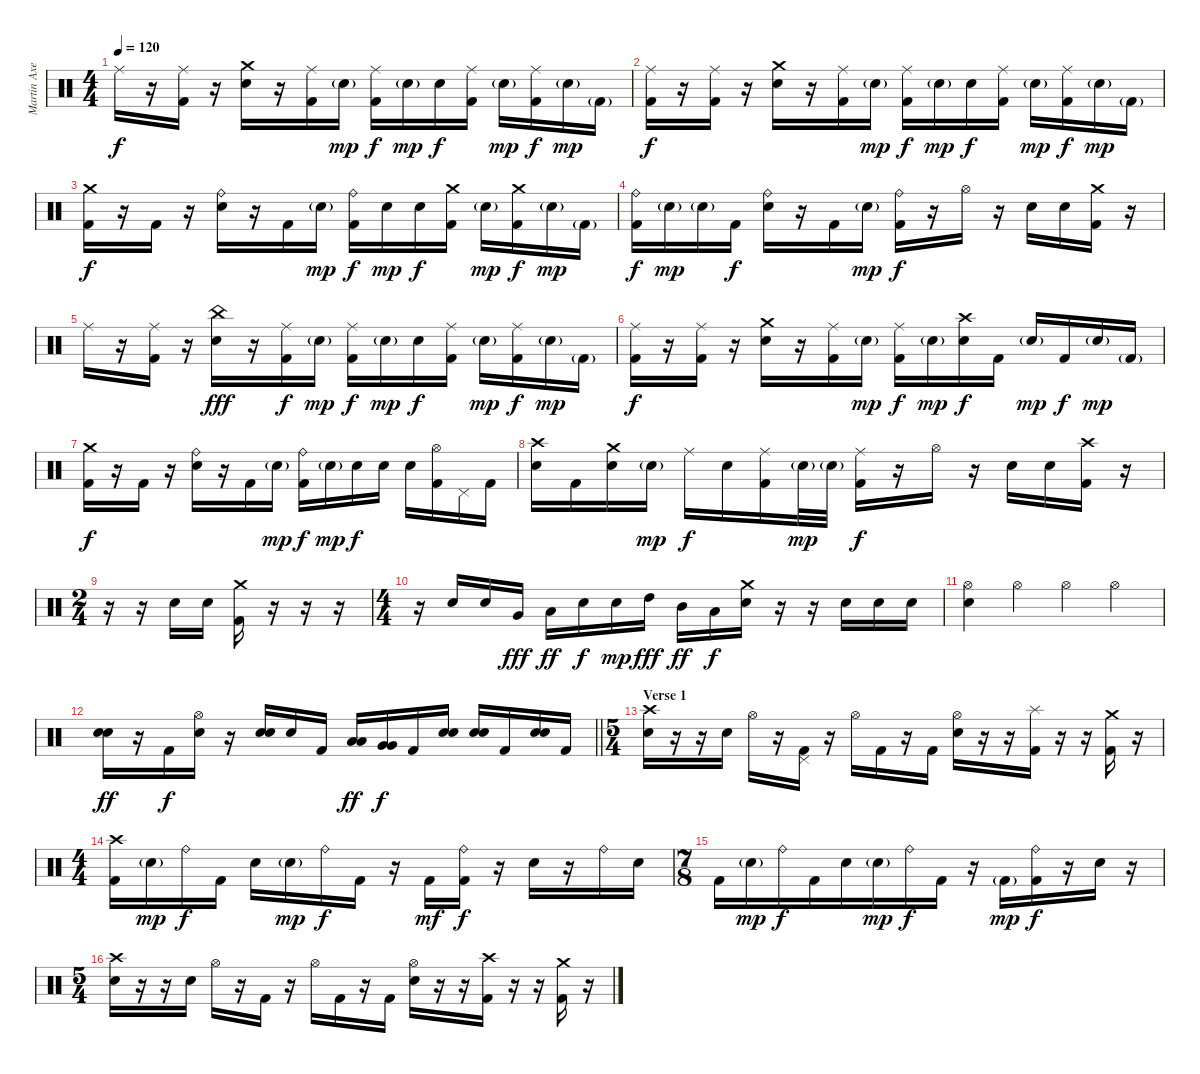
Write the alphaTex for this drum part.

\track ("Martin Axenrot - Drums" "Martin Axe") {instrument percussion}
\staff {score}
\articulation defaults
\ts (4 4)
\tempo 120
\clef neutral
\ks c "Ride (middle)".16{dy f}
r.16 ("Ride (middle)" "Kick (hit) 2").16 r.16 ("Crash medium (hit)" "Snare (hit) 2").16 r.16 ("Ride (middle)" "Kick (hit) 2").16 "Snare (hit) 2"{g}.16{dy mp} ("Ride (middle)" "Kick (hit) 2").16{dy f} "Snare (hit) 2"{g}.16{dy mp} "Snare (hit) 2".16{dy f} ("Ride (middle)" "Kick (hit) 2").16 "Snare (hit) 2"{g}.16{dy mp} ("Ride (middle)" "Kick (hit) 2").16{dy f} "Snare (hit) 2"{g}.16{dy mp} "Kick (hit) 2"{g}.16 |
("Ride (middle)" "Kick (hit) 2").16{dy f} r.16 ("Ride (middle)" "Kick (hit) 2").16 r.16 ("Crash medium (hit)" "Snare (hit) 2").16 r.16 ("Ride (middle)" "Kick (hit) 2").16 "Snare (hit) 2"{g}.16{dy mp} ("Ride (middle)" "Kick (hit) 2").16{dy f} "Snare (hit) 2"{g}.16{dy mp} "Snare (hit) 2".16{dy f} ("Ride (middle)" "Kick (hit) 2").16 "Snare (hit) 2"{g}.16{dy mp} ("Ride (middle)" "Kick (hit) 2").16{dy f} "Snare (hit) 2"{g}.16{dy mp} "Kick (hit) 2"{g}.16 |
("Crash medium (hit)" "Kick (hit) 2").16{dy f} r.16 "Kick (hit) 2".16 r.16 ("Ride (bell)" "Snare (hit) 2").16 r.16 "Kick (hit) 2".16 "Snare (hit) 2"{g}.16{dy mp} ("Ride (bell)" "Kick (hit) 2").16{dy f} "Snare (hit) 2".16{dy mp} "Snare (hit) 2".16{dy f} ("Crash medium (hit)" "Kick (hit) 2").16 "Snare (hit) 2"{g}.16{dy mp} ("Crash medium (hit)" "Kick (hit) 2").16{dy f} "Snare (hit) 2"{g}.16{dy mp} "Kick (hit) 2"{g}.16 |
("Ride (bell)" "Kick (hit) 2").16{dy f} "Snare (hit) 2"{g}.16{dy mp} "Snare (hit) 2"{g}.16 "Kick (hit) 2".16{dy f} ("Ride (bell)" "Snare (hit) 2").16 r.16 "Kick (hit) 2".16 "Snare (hit) 2"{g}.16{dy mp} ("Ride (bell)" "Kick (hit) 2").16{dy f} r.16 "Hi-Hat (open)".16 r.16 "Snare (hit) 2".16 "Snare (hit) 2".16 ("Crash medium (hit)" "Kick (hit) 2").16 r.16 |
"Ride (middle)".16 r.16 ("Ride (middle)" "Kick (hit) 2").16 r.16 ("China (hit)" "Snare (hit) 2").16{dy fff} r.16 ("Ride (middle)" "Kick (hit) 2").16{dy f} "Snare (hit) 2"{g}.16{dy mp} ("Ride (middle)" "Kick (hit) 2").16{dy f} "Snare (hit) 2"{g}.16{dy mp} "Snare (hit) 2".16{dy f} ("Ride (middle)" "Kick (hit) 2").16 "Snare (hit) 2"{g}.16{dy mp} ("Ride (middle)" "Kick (hit) 2").16{dy f} "Snare (hit) 2"{g}.16{dy mp} "Kick (hit) 2"{g}.16 |
("Ride (middle)" "Kick (hit) 2").16{dy f} r.16 ("Ride (middle)" "Kick (hit) 2").16 r.16 ("Crash medium (hit)" "Snare (hit) 2").16 r.16 ("Ride (middle)" "Kick (hit) 2").16 "Snare (hit) 2"{g}.16{dy mp} ("Ride (middle)" "Kick (hit) 2").16{dy f} "Snare (hit) 2"{g}.16{dy mp} ("Crash high (hit)" "Snare (hit) 2").16{dy f} "Kick (hit) 2".16 "Snare (hit) 2"{g}.16{dy mp} "Kick (hit) 2".16{dy f} "Snare (hit) 2"{g}.16{dy mp} "Kick (hit) 2"{g}.16 |
("Crash medium (hit)" "Kick (hit) 2").16{dy f} r.16 "Kick (hit) 2".16 r.16 ("Ride (bell)" "Snare (hit) 2").16 r.16 "Kick (hit) 2".16 "Snare (hit) 2"{g}.16{dy mp} ("Ride (bell)" "Kick (hit) 2").16{dy f} "Snare (hit) 2"{g}.16{dy mp} "Snare (hit) 2".16{dy f} "Snare (hit) 2".16 "Snare (hit) 2".16 ("Hi-Hat (open)" "Kick (hit) 2").16 "Pedal Hi-Hat (hit)".16 "Kick (hit) 2".16 |
("Crash high (hit)" "Snare (hit) 2").16 "Kick (hit) 2".16 ("Crash medium (hit)" "Snare (hit) 2").16 "Snare (hit) 2"{g}.16{dy mp} "Ride (middle)".16{dy f} "Snare (hit) 2".16 ("Ride (middle)" "Kick (hit) 2").16 "Snare (hit) 2"{g}.32{dy mp} "Snare (hit) 2"{g}.32 ("Ride (middle)" "Kick (hit) 2").16{dy f} r.16 "Hi-Hat (open)".16 r.16 "Snare (hit) 2".16 "Snare (hit) 2".16 ("Crash high (hit)" "Kick (hit) 2").16 r.16 |
\ts (2 4)
r.16 r.16 "Snare (hit) 2".16 "Snare (hit) 2".16 ("Crash medium (hit)" "Kick (hit) 2").16 r.16 r.16 r.16 |
\ts (4 4)
r.16 "Snare (hit) 2".16 "Snare (hit) 2".16 "Very Low Tom (hit)".16{dy fff} "Low Tom (hit)".16{dy ff} "Snare (hit) 2".16{dy f} "Snare (hit) 2".16{dy mp} "High Tom (hit)".16{dy fff} "Mid Tom (hit)".16{dy ff} "Low Tom (hit)".16{dy f} ("Crash medium (hit)" "Snare (hit) 2").16 r.16 r.16 "Snare (hit) 2".16 "Snare (hit) 2".16 "Snare (hit) 2".16 |
("Hi-Hat (open)" "Snare (hit) 2").4 "Hi-Hat (open)".4 "Hi-Hat (open)".4 "Hi-Hat (open)".4 |
\barLineRight lightlight
("Snare (hit) 2" "Snare (hit) 2").16{bd 60 dy ff} r.16 "Kick (hit) 2".16{dy f} ("Hi-Hat (open)" "Snare (hit) 2").16 r.16 ("Snare (hit) 2" "Snare (hit) 2").16{bd 60} "Snare (hit) 2".16 "Kick (hit) 2".16 ("Low Tom (hit)" "Low Tom (hit)").16{bd 60 dy ff} ("Very Low Tom (hit)" "Very Low Tom (hit)").16{bd 60 dy f} "Kick (hit) 2".16 ("Snare (hit) 2" "Snare (hit) 2").16{bd 60} ("Snare (hit) 2" "Snare (hit) 2").16{bd 60} "Kick (hit) 2".16 ("Snare (hit) 2" "Snare (hit) 2").16{bd 60} "Kick (hit) 2".16 |
\ts (5 4)
\section ("" "Verse 1")
("Crash high (hit)" "Snare (hit) 2").16 r.16 r.16 "Snare (hit) 2".16 "Hi-Hat (open)".16 r.16 ("Pedal Hi-Hat (hit)" "Kick (hit) 2").16 r.16 "Hi-Hat (open)".16 "Kick (hit) 2".16 r.16 "Kick (hit) 2".16 ("Hi-Hat (open)" "Snare (hit) 2").16 r.16 r.16 ("Splash (hit)" "Kick (hit) 2").16 r.16 r.16 ("Crash medium (hit)" "Kick (hit) 2").16 r.16 |
\ts (4 4)
("Crash high (hit)" "Kick (hit) 2").16 "Snare (hit) 2"{g}.16{dy mp} "Ride (bell)".16{dy f} "Kick (hit) 2".16 "Snare (hit) 2".16 "Snare (hit) 2"{g}.16{dy mp} "Ride (bell)".16{dy f} "Kick (hit) 2".16 r.16 "Kick (hit) 2".16{dy mf} ("Ride (bell)" "Kick (hit) 2").16{dy f} r.16 "Snare (hit) 2".16 r.16 "Ride (bell)".16 "Snare (hit) 2".16 |
\ts (7 8)
"Kick (hit) 2".16 "Snare (hit) 2"{g}.16{dy mp} "Ride (bell)".16{dy f} "Kick (hit) 2".16 "Snare (hit) 2".16 "Snare (hit) 2"{g}.16{dy mp} "Ride (bell)".16{dy f} "Kick (hit) 2".16 r.16 "Kick (hit) 2"{g}.16{dy mp} ("Ride (bell)" "Kick (hit) 2").16{dy f} r.16 "Snare (hit) 2".16 r.16 |
\ts (5 4)
("Crash high (hit)" "Snare (hit) 2").16 r.16 r.16 "Snare (hit) 2".16 "Hi-Hat (open)".16 r.16 "Kick (hit) 2".16 r.16 "Hi-Hat (open)".16 "Kick (hit) 2".16 r.16 "Kick (hit) 2".16 ("Hi-Hat (open)" "Snare (hit) 2").16 r.16 r.16 ("Crash high (hit)" "Kick (hit) 2").16 r.16 r.16 ("Crash medium (hit)" "Kick (hit) 2").16 r.16
